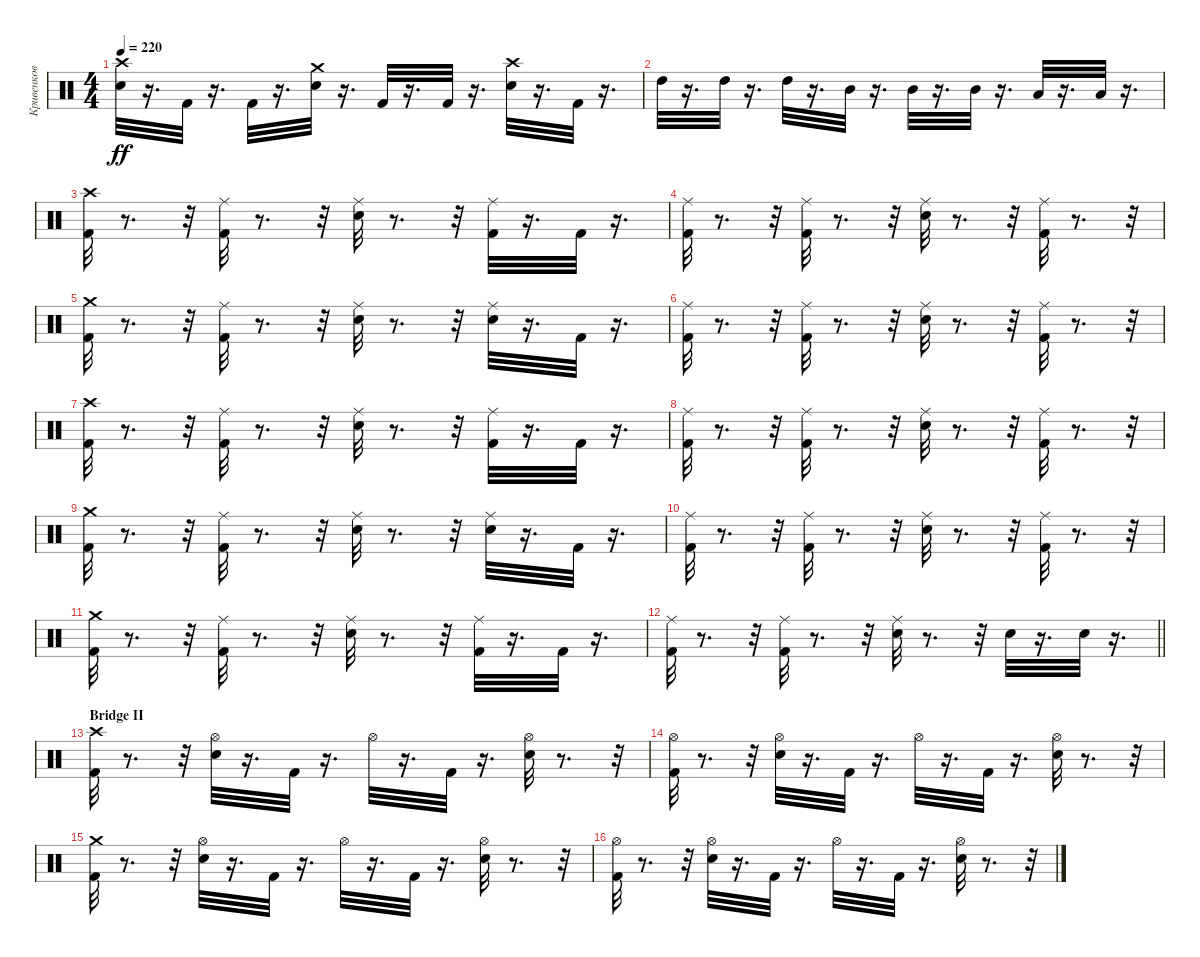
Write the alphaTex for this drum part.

\track ("Кривенков" "Кривенков") {instrument percussion}
\staff {score}
\articulation defaults
\ts (4 4)
\tempo 220
\clef neutral
\ks c
("Crash high (hit)" "Snare (hit) 2").32{dy ff} r.16{d} "Kick (hit) 2".32 r.16{d} "Kick (hit) 2".32 r.16{d} ("Crash medium (hit)" "Electric Snare (hit)").32 r.16{d} "Kick (hit) 2".32 r.16{d} "Kick (hit) 2".32 r.16{d} ("Crash high (hit)" "Electric Snare (hit)").32 r.16{d} "Kick (hit) 2".32 r.16{d} |
"High Tom (hit)".32 r.16{d} "High Tom (hit)".32 r.16{d} "High Tom (hit)".32 r.16{d} "Mid Tom (hit)".32 r.16{d} "Mid Tom (hit)".32 r.16{d} "Mid Tom (hit)".32 r.16{d} "Low Tom (hit)".32 r.16{d} "Low Tom (hit)".32 r.16{d} |
("Crash high (hit)" "Kick (hit) 2").32 r.8{d} r.32 ("Ride (middle)" "Kick (hit) 2").32 r.8{d} r.32 ("Ride (middle)" "Electric Snare (hit)").32 r.8{d} r.32 ("Ride (middle)" "Kick (hit) 2").32 r.16{d} "Kick (hit) 2".32 r.16{d} |
("Ride (middle)" "Kick (hit) 2").32 r.8{d} r.32 ("Ride (middle)" "Kick (hit) 2").32 r.8{d} r.32 ("Ride (middle)" "Electric Snare (hit)").32 r.8{d} r.32 ("Ride (middle)" "Kick (hit) 2").32 r.8{d} r.32 |
("Crash medium (hit)" "Kick (hit) 2").32 r.8{d} r.32 ("Ride (middle)" "Kick (hit) 2").32 r.8{d} r.32 ("Ride (middle)" "Snare (hit) 2").32 r.8{d} r.32 ("Ride (middle)" "Electric Snare (hit)").32 r.16{d} "Kick (hit) 2".32 r.16{d} |
("Ride (middle)" "Kick (hit) 2").32 r.8{d} r.32 ("Ride (middle)" "Kick (hit) 2").32 r.8{d} r.32 ("Ride (middle)" "Electric Snare (hit)").32 r.8{d} r.32 ("Ride (middle)" "Kick (hit) 2").32 r.8{d} r.32 |
("Crash high (hit)" "Kick (hit) 2").32 r.8{d} r.32 ("Ride (middle)" "Kick (hit) 2").32 r.8{d} r.32 ("Ride (middle)" "Electric Snare (hit)").32 r.8{d} r.32 ("Ride (middle)" "Kick (hit) 2").32 r.16{d} "Kick (hit) 2".32 r.16{d} |
("Ride (middle)" "Kick (hit) 2").32 r.8{d} r.32 ("Ride (middle)" "Kick (hit) 2").32 r.8{d} r.32 ("Ride (middle)" "Electric Snare (hit)").32 r.8{d} r.32 ("Ride (middle)" "Kick (hit) 2").32 r.8{d} r.32 |
("Crash medium (hit)" "Kick (hit) 2").32 r.8{d} r.32 ("Ride (middle)" "Kick (hit) 2").32 r.8{d} r.32 ("Ride (middle)" "Electric Snare (hit)").32 r.8{d} r.32 ("Ride (middle)" "Electric Snare (hit)").32 r.16{d} "Kick (hit) 2".32 r.16{d} |
("Ride (middle)" "Kick (hit) 2").32 r.8{d} r.32 ("Ride (middle)" "Kick (hit) 2").32 r.8{d} r.32 ("Ride (middle)" "Electric Snare (hit)").32 r.8{d} r.32 ("Ride (middle)" "Kick (hit) 2").32 r.8{d} r.32 |
("Crash medium (hit)" "Kick (hit) 2").32 r.8{d} r.32 ("Ride (middle)" "Kick (hit) 2").32 r.8{d} r.32 ("Ride (middle)" "Electric Snare (hit)").32 r.8{d} r.32 ("Ride (middle)" "Kick (hit) 2").32 r.16{d} "Kick (hit) 2".32 r.16{d} |
\barLineRight lightlight
("Ride (middle)" "Kick (hit) 2").32 r.8{d} r.32 ("Ride (middle)" "Kick (hit) 2").32 r.8{d} r.32 ("Ride (middle)" "Electric Snare (hit)").32 r.8{d} r.32 "Electric Snare (hit)".32 r.16{d} "Electric Snare (hit)".32 r.16{d} |
\section ("" "Bridge II")
("Crash high (hit)" "Kick (hit) 2").32 r.8{d} r.32 ("Hi-Hat (open)" "Electric Snare (hit)").32 r.16{d} "Kick (hit) 2".32 r.16{d} "Hi-Hat (open)".32 r.16{d} "Kick (hit) 2".32 r.16{d} ("Hi-Hat (open)" "Electric Snare (hit)").32 r.8{d} r.32 |
("Kick (hit) 2" "Hi-Hat (open)").32 r.8{d} r.32 ("Electric Snare (hit)" "Hi-Hat (open)").32 r.16{d} "Kick (hit) 2".32 r.16{d} "Hi-Hat (open)".32 r.16{d} "Kick (hit) 2".32 r.16{d} ("Hi-Hat (open)" "Electric Snare (hit)").32 r.8{d} r.32 |
("Crash medium (hit)" "Kick (hit) 2").32 r.8{d} r.32 ("Hi-Hat (open)" "Electric Snare (hit)").32 r.16{d} "Kick (hit) 2".32 r.16{d} "Hi-Hat (open)".32 r.16{d} "Kick (hit) 2".32 r.16{d} ("Hi-Hat (open)" "Electric Snare (hit)").32 r.8{d} r.32 |
("Kick (hit) 2" "Hi-Hat (open)").32 r.8{d} r.32 ("Electric Snare (hit)" "Hi-Hat (open)").32 r.16{d} "Kick (hit) 2".32 r.16{d} "Hi-Hat (open)".32 r.16{d} "Kick (hit) 2".32 r.16{d} ("Hi-Hat (open)" "Electric Snare (hit)").32 r.8{d} r.32
